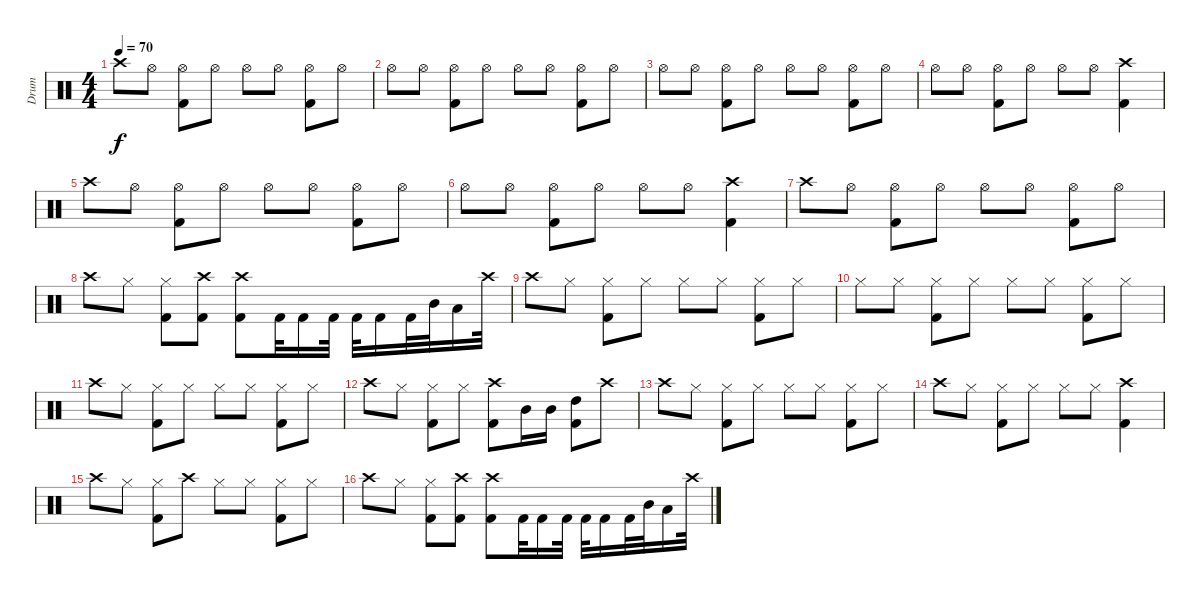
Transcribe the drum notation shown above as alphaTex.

\track ("Drum" "Drum") {instrument percussion}
\staff {score}
\articulation defaults
\ts (4 4)
\tempo 70
\clef neutral
\ks c "Crash high (hit)".8{dy f} "Hi-Hat (open)".8
("Hi-Hat (open)" "Kick (hit) 2").8 "Hi-Hat (open)".8 "Hi-Hat (open)".8 "Hi-Hat (open)".8 ("Hi-Hat (open)" "Kick (hit) 2").8 "Hi-Hat (open)".8 |
"Hi-Hat (open)".8 "Hi-Hat (open)".8 ("Hi-Hat (open)" "Kick (hit) 2").8 "Hi-Hat (open)".8 "Hi-Hat (open)".8 "Hi-Hat (open)".8 ("Hi-Hat (open)" "Kick (hit) 2").8 "Hi-Hat (open)".8 |
"Hi-Hat (open)".8 "Hi-Hat (open)".8 ("Hi-Hat (open)" "Kick (hit) 2").8 "Hi-Hat (open)".8 "Hi-Hat (open)".8 "Hi-Hat (open)".8 ("Hi-Hat (open)" "Kick (hit) 2").8 "Hi-Hat (open)".8 |
"Hi-Hat (open)".8 "Hi-Hat (open)".8 ("Hi-Hat (open)" "Kick (hit) 2").8 "Hi-Hat (open)".8 "Hi-Hat (open)".8 "Hi-Hat (open)".8 ("Crash high (hit)" "Kick (hit) 2").4 |
"Crash high (hit)".8 "Hi-Hat (open)".8 ("Hi-Hat (open)" "Kick (hit) 2").8 "Hi-Hat (open)".8 "Hi-Hat (open)".8 "Hi-Hat (open)".8 ("Hi-Hat (open)" "Kick (hit) 2").8 "Hi-Hat (open)".8 |
"Hi-Hat (open)".8 "Hi-Hat (open)".8 ("Hi-Hat (open)" "Kick (hit) 2").8 "Hi-Hat (open)".8 "Hi-Hat (open)".8 "Hi-Hat (open)".8 ("Crash high (hit)" "Kick (hit) 2").4 |
"Crash high (hit)".8 "Hi-Hat (open)".8 ("Hi-Hat (open)" "Kick (hit) 2").8 "Hi-Hat (open)".8 "Hi-Hat (open)".8 "Hi-Hat (open)".8 ("Hi-Hat (open)" "Kick (hit) 2").8 "Hi-Hat (open)".8 |
"Crash high (hit)".8 "Hi-Hat (closed)".8 ("Hi-Hat (closed)" "Kick (hit) 2").8 ("Crash high (hit)" "Kick (hit) 2").8 ("Crash high (hit)" "Kick (hit) 2").8 "Kick (hit) 2".32 "Kick (hit) 2".16 "Kick (hit) 2".32 "Kick (hit) 2".32 "Kick (hit) 2".16 "Kick (hit) 2".32 "Mid Tom (hit)".32 "Low Tom (hit)".16 "Crash high (hit)".32 |
"Crash high (hit)".8 "Hi-Hat (closed)".8 ("Hi-Hat (closed)" "Kick (hit) 2").8 "Hi-Hat (closed)".8 "Hi-Hat (closed)".8 "Hi-Hat (closed)".8 ("Hi-Hat (closed)" "Kick (hit) 2").8 "Hi-Hat (closed)".8 |
"Hi-Hat (closed)".8 "Hi-Hat (closed)".8 ("Hi-Hat (closed)" "Kick (hit) 2").8 "Hi-Hat (closed)".8 "Hi-Hat (closed)".8 "Hi-Hat (closed)".8 ("Hi-Hat (closed)" "Kick (hit) 2").8 "Hi-Hat (closed)".8 |
"Crash high (hit)".8 "Hi-Hat (closed)".8 ("Hi-Hat (closed)" "Kick (hit) 2").8 "Hi-Hat (closed)".8 "Hi-Hat (closed)".8 "Hi-Hat (closed)".8 ("Hi-Hat (closed)" "Kick (hit) 2").8 "Hi-Hat (closed)".8 |
"Crash high (hit)".8 "Hi-Hat (closed)".8 ("Hi-Hat (closed)" "Kick (hit) 2").8 "Hi-Hat (closed)".8 ("Crash high (hit)" "Kick (hit) 2").8 "Mid Tom (hit)".16 "Mid Tom (hit)".16 ("High Tom (hit)" "Kick (hit) 2").8 "Crash high (hit)".8 |
"Crash high (hit)".8 "Hi-Hat (closed)".8 ("Hi-Hat (closed)" "Kick (hit) 2").8 "Hi-Hat (closed)".8 "Hi-Hat (closed)".8 "Hi-Hat (closed)".8 ("Hi-Hat (closed)" "Kick (hit) 2").8 "Hi-Hat (closed)".8 |
"Crash high (hit)".8 "Hi-Hat (closed)".8 ("Hi-Hat (closed)" "Kick (hit) 2").8 "Hi-Hat (closed)".8 "Hi-Hat (closed)".8 "Hi-Hat (closed)".8 ("Crash high (hit)" "Kick (hit) 2").4 |
"Crash high (hit)".8 "Hi-Hat (closed)".8 ("Hi-Hat (closed)" "Kick (hit) 2").8 "Crash high (hit)".8 "Hi-Hat (closed)".8 "Hi-Hat (closed)".8 ("Hi-Hat (closed)" "Kick (hit) 2").8 "Hi-Hat (closed)".8 |
"Crash high (hit)".8 "Hi-Hat (closed)".8 ("Hi-Hat (closed)" "Kick (hit) 2").8 ("Crash high (hit)" "Kick (hit) 2").8 ("Crash high (hit)" "Kick (hit) 2").8 "Kick (hit) 2".32 "Kick (hit) 2".16 "Kick (hit) 2".32 "Kick (hit) 2".32 "Kick (hit) 2".16 "Kick (hit) 2".32 "Mid Tom (hit)".32 "Low Tom (hit)".16 "Crash high (hit)".32
